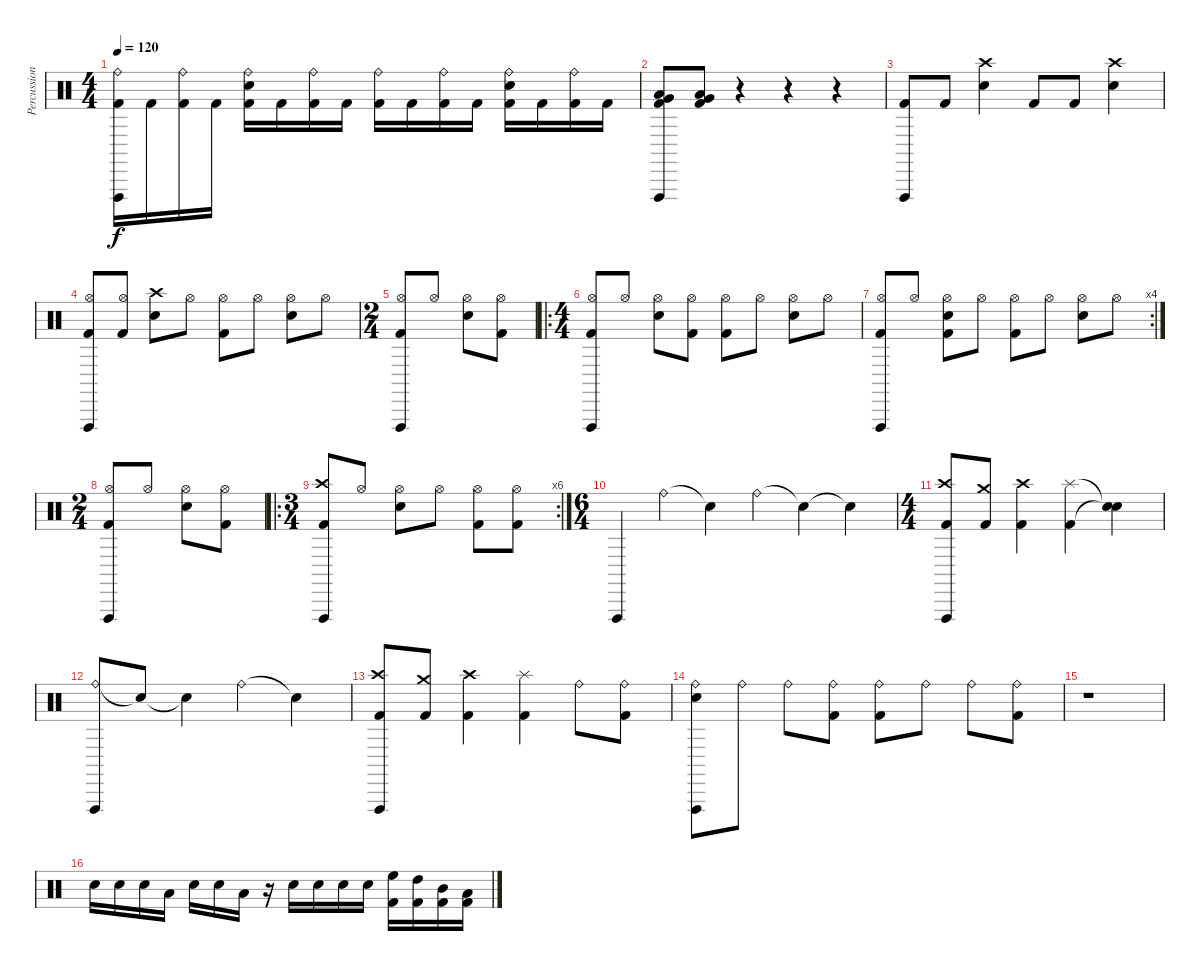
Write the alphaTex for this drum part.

\track ("Percussion" "Percussion") {instrument percussion}
\staff {score}
\articulation defaults
\ts (4 4)
\tempo 120
\clef neutral
\ks c
("Ride (bell)" "Vibraslap (hit)" "Kick (hit) 2").16{dy f} "Kick (hit) 2".16 ("Ride (bell)" "Kick (hit) 2").16 "Kick (hit) 2".16 ("Ride (bell)" "Electric Snare (hit)" "Kick (hit) 2").16 "Kick (hit) 2".16 ("Ride (bell)" "Kick (hit) 2").16 "Kick (hit) 2".16 ("Ride (bell)" "Kick (hit) 2").16 "Kick (hit) 2".16 ("Ride (bell)" "Kick (hit) 2").16 "Kick (hit) 2".16 ("Ride (bell)" "Electric Snare (hit)" "Kick (hit) 2").16 "Kick (hit) 2".16 ("Ride (bell)" "Kick (hit) 2").16 "Kick (hit) 2".16 |
("Vibraslap (hit)" "Low Tom (hit)" "Very Low Tom (hit)" "Kick (hit) 2").8 ("Low Tom (hit)" "Very Low Tom (hit)" "Kick (hit) 2").8 r.4 r.4 r.4 |
("Vibraslap (hit)" "Kick (hit) 2").8 "Kick (hit) 2".8 ("Crash high (hit)" "Electric Snare (hit)").4 "Kick (hit) 2".8 "Kick (hit) 2".8 ("Crash high (hit)" "Electric Snare (hit)").4 |
("Hi-Hat (open)" "Vibraslap (hit)" "Kick (hit) 2").8 ("Hi-Hat (open)" "Kick (hit) 2").8 ("Crash high (hit)" "Electric Snare (hit)").8 "Hi-Hat (open)".8 ("Hi-Hat (open)" "Kick (hit) 2").8 "Hi-Hat (open)".8 ("Hi-Hat (open)" "Electric Snare (hit)").8 "Hi-Hat (open)".8 |
\ts (2 4)
("Hi-Hat (open)" "Vibraslap (hit)" "Kick (hit) 2").8 "Hi-Hat (open)".8 ("Hi-Hat (open)" "Electric Snare (hit)").8 ("Hi-Hat (open)" "Kick (hit) 2").8 |
\ro
\ts (4 4)
("Hi-Hat (open)" "Vibraslap (hit)" "Kick (hit) 2").8 "Hi-Hat (open)".8 ("Hi-Hat (open)" "Electric Snare (hit)").8 ("Hi-Hat (open)" "Kick (hit) 2").8 ("Hi-Hat (open)" "Kick (hit) 2").8 "Hi-Hat (open)".8 ("Hi-Hat (open)" "Electric Snare (hit)").8 "Hi-Hat (open)".8 |
\rc 4
("Hi-Hat (open)" "Vibraslap (hit)" "Kick (hit) 2").8 "Hi-Hat (open)".8 ("Hi-Hat (open)" "Electric Snare (hit)" "Kick (hit) 2").8 "Hi-Hat (open)".8 ("Hi-Hat (open)" "Kick (hit) 2").8 "Hi-Hat (open)".8 ("Hi-Hat (open)" "Electric Snare (hit)").8 "Hi-Hat (open)".8 |
\ts (2 4)
("Hi-Hat (open)" "Vibraslap (hit)" "Kick (hit) 2").8 "Hi-Hat (open)".8 ("Hi-Hat (open)" "Electric Snare (hit)").8 ("Hi-Hat (open)" "Kick (hit) 2").8 |
\ro
\rc 6
\ts (3 4)
("Crash high (hit)" "Vibraslap (hit)" "Kick (hit) 2").8 "Hi-Hat (open)".8 ("Hi-Hat (open)" "Electric Snare (hit)").8 "Hi-Hat (open)".8 ("Hi-Hat (open)" "Kick (hit) 2").8 ("Hi-Hat (open)" "Kick (hit) 2").8 |
\ts (6 4)
"Vibraslap (hit)".4 "Ride (bell)".4 "Snare (hit)"{t}.4 "Ride (bell)".4 "Snare (hit)"{t}.4 "Snare (hit)"{t}.4 |
\ts (4 4)
("Crash high (hit)" "Vibraslap (hit)" "Kick (hit) 2").8 ("Crash medium (hit)" "Kick (hit) 2").8 ("Crash high (hit)" "Kick (hit) 2").4 ("Splash (hit)" "Kick (hit) 2").4 ("Snare (hit)"{t} "Snare (hit)"{t}).4 |
("Ride (bell)" "Vibraslap (hit)").8 "Snare (hit)"{t}.8 "Snare (hit)"{t}.4 "Ride (bell)".4 "Snare (hit)"{t}.4 |
("Crash high (hit)" "Vibraslap (hit)" "Kick (hit) 2").8 ("Crash medium (hit)" "Kick (hit) 2").8 ("Crash high (hit)" "Kick (hit) 2").4 ("Splash (hit)" "Kick (hit) 2").4 "Ride (bell)".8 ("Ride (bell)" "Kick (hit) 2").8 |
("Ride (bell)" "Vibraslap (hit)" "Electric Snare (hit)").8 "Ride (bell)".8 "Ride (bell)".8 ("Ride (bell)" "Kick (hit) 2").8 ("Ride (bell)" "Kick (hit) 2").8 "Ride (bell)".8 "Ride (bell)".8 ("Ride (bell)" "Kick (hit) 2").8 |
r.1 |
"Electric Snare (hit)".16 "Electric Snare (hit)".16 "Electric Snare (hit)".16 "Low Tom (hit)".16 "Electric Snare (hit)".16 "Electric Snare (hit)".16 "Low Tom (hit)".16 r.16 "Electric Snare (hit)".16 "Electric Snare (hit)".16 "Electric Snare (hit)".16 "Electric Snare (hit)".16 ("High Floor Tom (hit)" "Kick (hit) 2").16 ("High Tom (hit)" "Kick (hit) 2").16 ("Mid Tom (hit)" "Kick (hit) 2").16 ("Low Tom (hit)" "Kick (hit) 2").16
